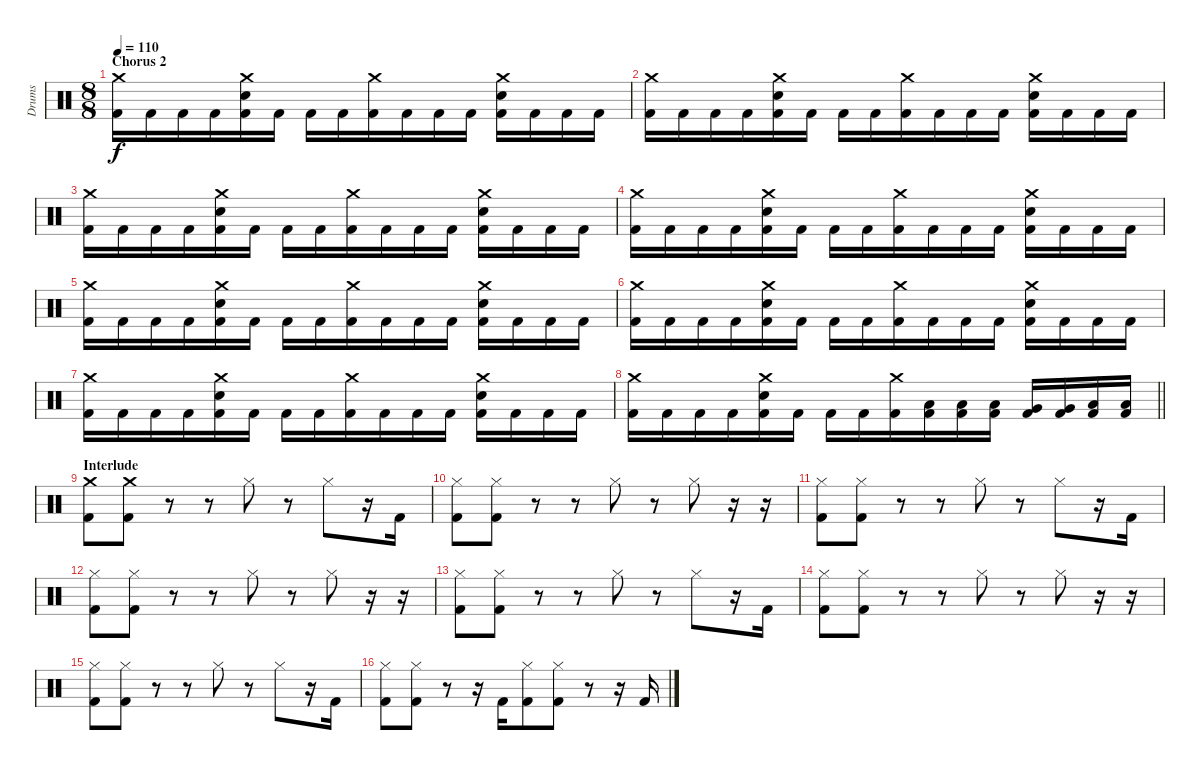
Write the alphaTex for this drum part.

\track ("Drums" "Drums") {instrument percussion}
\staff {score}
\articulation defaults
\ts (8 8)
\section ("" "Chorus 2")
\tempo 110
\clef neutral
\ks c
("Crash medium (hit)" "Kick (hit) 2").16{dy f} "Kick (hit) 2".16 "Kick (hit) 2".16 "Kick (hit) 2".16 ("Crash medium (hit)" "Electric Snare (hit)" "Kick (hit) 2").16 "Kick (hit) 2".16 "Kick (hit) 2".16 "Kick (hit) 2".16 ("Crash medium (hit)" "Kick (hit) 2").16 "Kick (hit) 2".16 "Kick (hit) 2".16 "Kick (hit) 2".16 ("Crash medium (hit)" "Electric Snare (hit)" "Kick (hit) 2").16 "Kick (hit) 2".16 "Kick (hit) 2".16 "Kick (hit) 2".16 |
("Crash medium (hit)" "Kick (hit) 2").16 "Kick (hit) 2".16 "Kick (hit) 2".16 "Kick (hit) 2".16 ("Crash medium (hit)" "Electric Snare (hit)" "Kick (hit) 2").16 "Kick (hit) 2".16 "Kick (hit) 2".16 "Kick (hit) 2".16 ("Crash medium (hit)" "Kick (hit) 2").16 "Kick (hit) 2".16 "Kick (hit) 2".16 "Kick (hit) 2".16 ("Crash medium (hit)" "Electric Snare (hit)" "Kick (hit) 2").16 "Kick (hit) 2".16 "Kick (hit) 2".16 "Kick (hit) 2".16 |
("Crash medium (hit)" "Kick (hit) 2").16 "Kick (hit) 2".16 "Kick (hit) 2".16 "Kick (hit) 2".16 ("Crash medium (hit)" "Electric Snare (hit)" "Kick (hit) 2").16 "Kick (hit) 2".16 "Kick (hit) 2".16 "Kick (hit) 2".16 ("Crash medium (hit)" "Kick (hit) 2").16 "Kick (hit) 2".16 "Kick (hit) 2".16 "Kick (hit) 2".16 ("Crash medium (hit)" "Electric Snare (hit)" "Kick (hit) 2").16 "Kick (hit) 2".16 "Kick (hit) 2".16 "Kick (hit) 2".16 |
("Crash medium (hit)" "Kick (hit) 2").16 "Kick (hit) 2".16 "Kick (hit) 2".16 "Kick (hit) 2".16 ("Crash medium (hit)" "Electric Snare (hit)" "Kick (hit) 2").16 "Kick (hit) 2".16 "Kick (hit) 2".16 "Kick (hit) 2".16 ("Crash medium (hit)" "Kick (hit) 2").16 "Kick (hit) 2".16 "Kick (hit) 2".16 "Kick (hit) 2".16 ("Crash medium (hit)" "Electric Snare (hit)" "Kick (hit) 2").16 "Kick (hit) 2".16 "Kick (hit) 2".16 "Kick (hit) 2".16 |
("Crash medium (hit)" "Kick (hit) 2").16 "Kick (hit) 2".16 "Kick (hit) 2".16 "Kick (hit) 2".16 ("Crash medium (hit)" "Electric Snare (hit)" "Kick (hit) 2").16 "Kick (hit) 2".16 "Kick (hit) 2".16 "Kick (hit) 2".16 ("Crash medium (hit)" "Kick (hit) 2").16 "Kick (hit) 2".16 "Kick (hit) 2".16 "Kick (hit) 2".16 ("Crash medium (hit)" "Electric Snare (hit)" "Kick (hit) 2").16 "Kick (hit) 2".16 "Kick (hit) 2".16 "Kick (hit) 2".16 |
("Crash medium (hit)" "Kick (hit) 2").16 "Kick (hit) 2".16 "Kick (hit) 2".16 "Kick (hit) 2".16 ("Crash medium (hit)" "Electric Snare (hit)" "Kick (hit) 2").16 "Kick (hit) 2".16 "Kick (hit) 2".16 "Kick (hit) 2".16 ("Crash medium (hit)" "Kick (hit) 2").16 "Kick (hit) 2".16 "Kick (hit) 2".16 "Kick (hit) 2".16 ("Crash medium (hit)" "Electric Snare (hit)" "Kick (hit) 2").16 "Kick (hit) 2".16 "Kick (hit) 2".16 "Kick (hit) 2".16 |
("Crash medium (hit)" "Kick (hit) 2").16 "Kick (hit) 2".16 "Kick (hit) 2".16 "Kick (hit) 2".16 ("Crash medium (hit)" "Electric Snare (hit)" "Kick (hit) 2").16 "Kick (hit) 2".16 "Kick (hit) 2".16 "Kick (hit) 2".16 ("Crash medium (hit)" "Kick (hit) 2").16 "Kick (hit) 2".16 "Kick (hit) 2".16 "Kick (hit) 2".16 ("Crash medium (hit)" "Electric Snare (hit)" "Kick (hit) 2").16 "Kick (hit) 2".16 "Kick (hit) 2".16 "Kick (hit) 2".16 |
\barLineRight lightlight
("Crash medium (hit)" "Kick (hit) 2").16 "Kick (hit) 2".16 "Kick (hit) 2".16 "Kick (hit) 2".16 ("Crash medium (hit)" "Electric Snare (hit)" "Kick (hit) 2").16 "Kick (hit) 2".16 "Kick (hit) 2".16 "Kick (hit) 2".16 ("Crash medium (hit)" "Kick (hit) 2").16 ("Low Tom (hit)" "Kick (hit) 2").16 ("Low Tom (hit)" "Kick (hit) 2").16 ("Low Tom (hit)" "Kick (hit) 2").16 ("Very Low Tom (hit)" "Kick (hit) 2").16 ("Very Low Tom (hit)" "Kick (hit) 2").16 ("Low Floor Tom (hit)" "Kick (hit) 2").16 ("Low Floor Tom (hit)" "Kick (hit) 2").16 |
\section ("" "Interlude")
("Crash medium (hit)" "Kick (hit) 2").8 ("Crash medium (hit)" "Kick (hit) 2").8 r.8 r.8 "Hi-Hat (closed)".8 r.8 "Hi-Hat (closed)".8 r.16 "Kick (hit) 2".16 |
("Hi-Hat (closed)" "Kick (hit) 2").8 ("Hi-Hat (closed)" "Kick (hit) 2").8 r.8 r.8 "Hi-Hat (closed)".8 r.8 "Hi-Hat (closed)".8 r.16 r.16 |
("Hi-Hat (closed)" "Kick (hit) 2").8 ("Hi-Hat (closed)" "Kick (hit) 2").8 r.8 r.8 "Hi-Hat (closed)".8 r.8 "Hi-Hat (closed)".8 r.16 "Kick (hit) 2".16 |
("Hi-Hat (closed)" "Kick (hit) 2").8 ("Hi-Hat (closed)" "Kick (hit) 2").8 r.8 r.8 "Hi-Hat (closed)".8 r.8 "Hi-Hat (closed)".8 r.16 r.16 |
("Hi-Hat (closed)" "Kick (hit) 2").8 ("Hi-Hat (closed)" "Kick (hit) 2").8 r.8 r.8 "Hi-Hat (closed)".8 r.8 "Hi-Hat (closed)".8 r.16 "Kick (hit) 2".16 |
("Hi-Hat (closed)" "Kick (hit) 2").8 ("Hi-Hat (closed)" "Kick (hit) 2").8 r.8 r.8 "Hi-Hat (closed)".8 r.8 "Hi-Hat (closed)".8 r.16 r.16 |
("Hi-Hat (closed)" "Kick (hit) 2").8 ("Hi-Hat (closed)" "Kick (hit) 2").8 r.8 r.8 "Hi-Hat (closed)".8 r.8 "Hi-Hat (closed)".8 r.16 "Kick (hit) 2".16 |
("Hi-Hat (closed)" "Kick (hit) 2").8 ("Hi-Hat (closed)" "Kick (hit) 2").8 r.8 r.16 "Kick (hit) 2".16 ("Hi-Hat (closed)" "Kick (hit) 2").8 ("Hi-Hat (closed)" "Kick (hit) 2").8 r.8 r.16 "Kick (hit) 2".16
